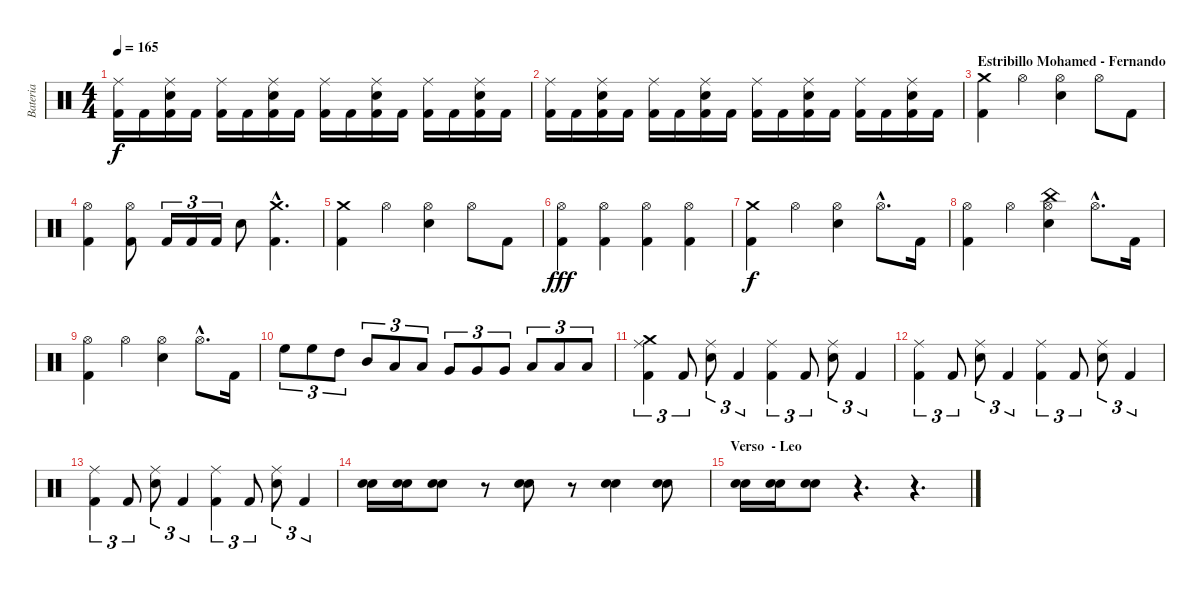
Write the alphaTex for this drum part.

\track ("Bateria" "Bateria") {instrument percussion}
\staff {score}
\articulation defaults
\ts (4 4)
\tempo 165
\clef neutral
\ks c
("Ride (middle)" "Kick (hit) 2").16{dy f} "Kick (hit) 2".16 ("Snare (hit) 2" "Ride (middle)" "Kick (hit) 2").16 "Kick (hit) 2".16 ("Ride (middle)" "Kick (hit) 2").16 "Kick (hit) 2".16 ("Snare (hit) 2" "Ride (middle)" "Kick (hit) 2").16 "Kick (hit) 2".16 ("Ride (middle)" "Kick (hit) 2").16 "Kick (hit) 2".16 ("Snare (hit) 2" "Ride (middle)" "Kick (hit) 2").16 "Kick (hit) 2".16 ("Ride (middle)" "Kick (hit) 2").16 "Kick (hit) 2".16 ("Snare (hit) 2" "Ride (middle)" "Kick (hit) 2").16 "Kick (hit) 2".16 |
("Ride (middle)" "Kick (hit) 2").16 "Kick (hit) 2".16 ("Snare (hit) 2" "Ride (middle)" "Kick (hit) 2").16 "Kick (hit) 2".16 ("Ride (middle)" "Kick (hit) 2").16 "Kick (hit) 2".16 ("Snare (hit) 2" "Ride (middle)" "Kick (hit) 2").16 "Kick (hit) 2".16 ("Ride (middle)" "Kick (hit) 2").16 "Kick (hit) 2".16 ("Snare (hit) 2" "Ride (middle)" "Kick (hit) 2").16 "Kick (hit) 2".16 ("Ride (middle)" "Kick (hit) 2").16 "Kick (hit) 2".16 ("Snare (hit) 2" "Ride (middle)" "Kick (hit) 2").16 "Kick (hit) 2".16 |
\section ("" "Estribillo Mohamed - Fernando")
("Crash medium (hit)" "Kick (hit) 2").4 "Hi-Hat (open)".4 ("Hi-Hat (open)" "Snare (hit) 2").4 "Hi-Hat (open)".8 "Kick (hit) 2".8 |
("Hi-Hat (open)" "Kick (hit) 2").4 ("Hi-Hat (open)" "Kick (hit) 2").8 "Kick (hit) 2".16{tu (3 2)} "Kick (hit) 2".16{tu (3 2)} "Kick (hit) 2".16{tu (3 2)} "Snare (hit) 2".8 ("Kick (hit) 2"{hac} "Crash medium (hit)"{hac}).4{d} |
("Crash medium (hit)" "Kick (hit) 2").4 "Hi-Hat (open)".4 ("Hi-Hat (open)" "Snare (hit) 2").4 "Hi-Hat (open)".8 "Kick (hit) 2".8 |
("Kick (hit) 2" "Hi-Hat (open)").4{dy fff} ("Kick (hit) 2" "Hi-Hat (open)").4 ("Kick (hit) 2" "Hi-Hat (open)").4 ("Kick (hit) 2" "Hi-Hat (open)").4 |
("Crash medium (hit)" "Kick (hit) 2").4{dy f} "Hi-Hat (open)".4 ("Hi-Hat (open)" "Snare (hit) 2").4 "Hi-Hat (open)"{hac}.8{d} "Kick (hit) 2".16 |
("Hi-Hat (open)" "Kick (hit) 2").4 "Hi-Hat (open)".4 ("Hi-Hat (open)" "China (hit)" "Snare (hit) 2").4 "Hi-Hat (open)"{hac}.8{d} "Kick (hit) 2".16 |
("Hi-Hat (open)" "Kick (hit) 2").4 "Hi-Hat (open)".4 ("Hi-Hat (open)" "Snare (hit) 2").4 "Hi-Hat (open)"{hac}.8{d} "Kick (hit) 2".16 |
"High Floor Tom (hit)".8{tu (3 2)} "High Floor Tom (hit)".8{tu (3 2)} "High Tom (hit)".8{tu (3 2)} "Mid Tom (hit)".8{tu (3 2)} "Low Tom (hit)".8{tu (3 2)} "Low Tom (hit)".8{tu (3 2)} "Very Low Tom (hit)".8{tu (3 2)} "Very Low Tom (hit)".8{tu (3 2)} "Very Low Tom (hit)".8{tu (3 2)} "Low Floor Tom (hit)".8{tu (3 2)} "Low Floor Tom (hit)".8{tu (3 2)} "Low Floor Tom (hit)".8{tu (3 2)} |
("Crash medium (hit)" "Ride (middle)" "Kick (hit) 2").4{tu (3 2)} "Kick (hit) 2".8{tu (3 2)} ("Ride (middle)" "Snare (hit) 2").8{tu (3 2)} "Kick (hit) 2".4{tu (3 2)} ("Ride (middle)" "Kick (hit) 2").4{tu (3 2)} "Kick (hit) 2".8{tu (3 2)} ("Ride (middle)" "Snare (hit) 2").8{tu (3 2)} "Kick (hit) 2".4{tu (3 2)} |
("Ride (middle)" "Kick (hit) 2").4{tu (3 2)} "Kick (hit) 2".8{tu (3 2)} ("Ride (middle)" "Snare (hit) 2").8{tu (3 2)} "Kick (hit) 2".4{tu (3 2)} ("Ride (middle)" "Kick (hit) 2").4{tu (3 2)} "Kick (hit) 2".8{tu (3 2)} ("Ride (middle)" "Snare (hit) 2").8{tu (3 2)} "Kick (hit) 2".4{tu (3 2)} |
("Ride (middle)" "Kick (hit) 2").4{tu (3 2)} "Kick (hit) 2".8{tu (3 2)} ("Ride (middle)" "Snare (hit) 2").8{tu (3 2)} "Kick (hit) 2".4{tu (3 2)} ("Ride (middle)" "Kick (hit) 2").4{tu (3 2)} "Kick (hit) 2".8{tu (3 2)} ("Ride (middle)" "Snare (hit) 2").8{tu (3 2)} "Kick (hit) 2".4{tu (3 2)} |
("Electric Snare (hit)" "Snare (hit) 2").16 ("Electric Snare (hit)" "Snare (hit) 2").16 ("Electric Snare (hit)" "Snare (hit) 2").8 r.8 ("Electric Snare (hit)" "Snare (hit) 2").8 r.8 ("Electric Snare (hit)" "Snare (hit) 2").4 ("Electric Snare (hit)" "Snare (hit) 2").8 |
\section ("" "Verso  - Leo")
("Electric Snare (hit)" "Snare (hit) 2").16 ("Electric Snare (hit)" "Snare (hit) 2").16 ("Electric Snare (hit)" "Snare (hit) 2").8 r.4{d} r.4{d}
